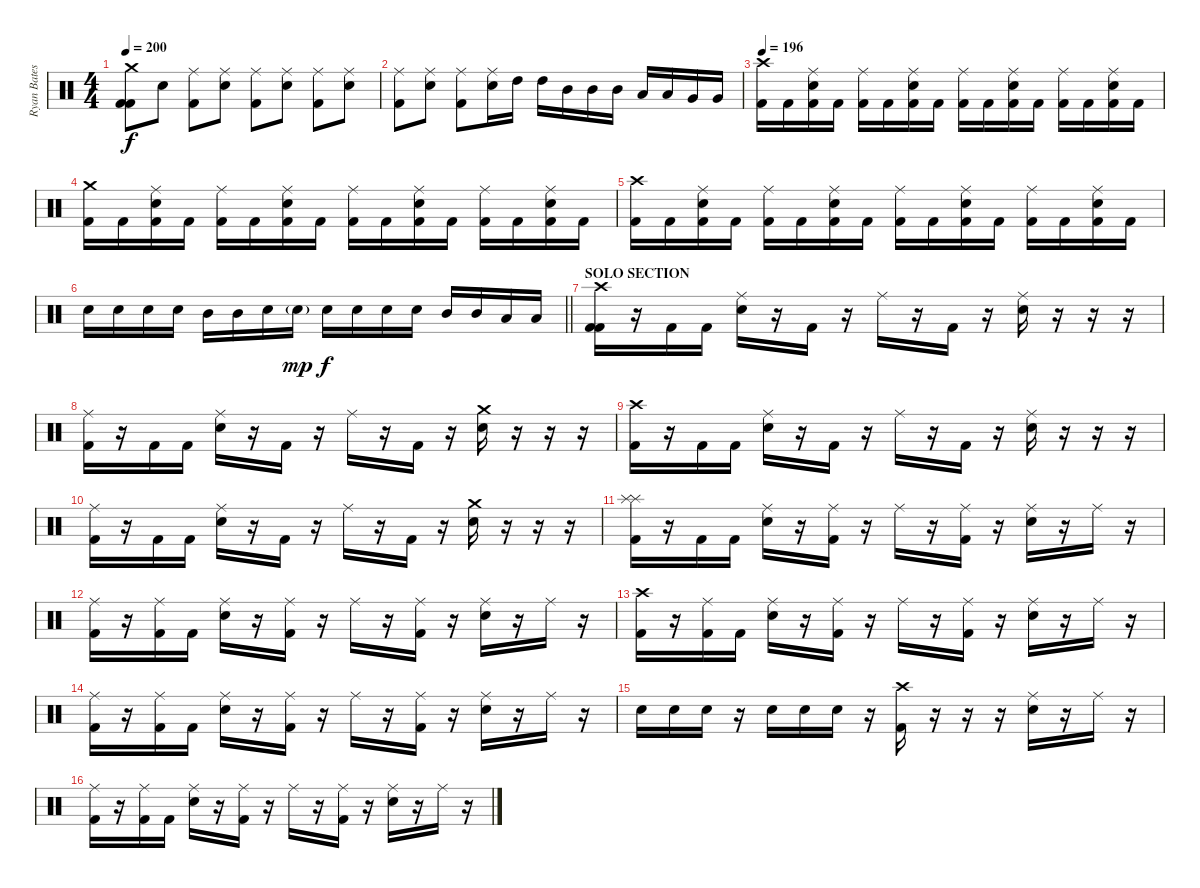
\track ("Ryan Bates" "Ryan Bates") {instrument percussion}
\staff {score}
\articulation defaults
\ts (4 4)
\tempo 200
\clef neutral
\ks c
("Crash medium (hit)" "Kick (hit) 2" "Kick (hit) 2").8{dy f} "Electric Snare (hit)".8 ("Ride (middle)" "Kick (hit) 2").8 ("Ride (middle)" "Electric Snare (hit)").8 ("Ride (middle)" "Kick (hit) 2").8 ("Ride (middle)" "Electric Snare (hit)").8 ("Ride (middle)" "Kick (hit) 2").8 ("Ride (middle)" "Electric Snare (hit)").8 |
("Ride (middle)" "Kick (hit) 2").8 ("Ride (middle)" "Electric Snare (hit)").8 ("Ride (middle)" "Kick (hit) 2").8 ("Ride (middle)" "Electric Snare (hit)").16 "High Tom (hit)".16 "High Tom (hit)".16 "Mid Tom (hit)".16 "Mid Tom (hit)".16 "Mid Tom (hit)".16 "Low Tom (hit)".16 "Low Tom (hit)".16 "Very Low Tom (hit)".16 "Very Low Tom (hit)".16 |
\tempo 196
("Crash high (hit)" "Kick (hit) 2").16 "Kick (hit) 2".16 ("Ride (middle)" "Electric Snare (hit)" "Kick (hit) 2").16 "Kick (hit) 2".16 ("Ride (middle)" "Kick (hit) 2").16 "Kick (hit) 2".16 ("Ride (middle)" "Electric Snare (hit)" "Kick (hit) 2").16 "Kick (hit) 2".16 ("Ride (middle)" "Kick (hit) 2").16 "Kick (hit) 2".16 ("Ride (middle)" "Electric Snare (hit)" "Kick (hit) 2").16 "Kick (hit) 2".16 ("Ride (middle)" "Kick (hit) 2").16 "Kick (hit) 2".16 ("Ride (middle)" "Electric Snare (hit)" "Kick (hit) 2").16 "Kick (hit) 2".16 |
("Crash medium (hit)" "Kick (hit) 2").16 "Kick (hit) 2".16 ("Ride (middle)" "Electric Snare (hit)" "Kick (hit) 2").16 "Kick (hit) 2".16 ("Ride (middle)" "Kick (hit) 2").16 "Kick (hit) 2".16 ("Ride (middle)" "Electric Snare (hit)" "Kick (hit) 2").16 "Kick (hit) 2".16 ("Ride (middle)" "Kick (hit) 2").16 "Kick (hit) 2".16 ("Ride (middle)" "Electric Snare (hit)" "Kick (hit) 2").16 "Kick (hit) 2".16 ("Ride (middle)" "Kick (hit) 2").16 "Kick (hit) 2".16 ("Ride (middle)" "Electric Snare (hit)" "Kick (hit) 2").16 "Kick (hit) 2".16 |
("Crash high (hit)" "Kick (hit) 2").16 "Kick (hit) 2".16 ("Ride (middle)" "Electric Snare (hit)" "Kick (hit) 2").16 "Kick (hit) 2".16 ("Ride (middle)" "Kick (hit) 2").16 "Kick (hit) 2".16 ("Ride (middle)" "Electric Snare (hit)" "Kick (hit) 2").16 "Kick (hit) 2".16 ("Ride (middle)" "Kick (hit) 2").16 "Kick (hit) 2".16 ("Ride (middle)" "Electric Snare (hit)" "Kick (hit) 2").16 "Kick (hit) 2".16 ("Ride (middle)" "Kick (hit) 2").16 "Kick (hit) 2".16 ("Ride (middle)" "Electric Snare (hit)" "Kick (hit) 2").16 "Kick (hit) 2".16 |
\barLineRight lightlight "Electric Snare (hit)".16 "Electric Snare (hit)".16 "Electric Snare (hit)".16 "Electric Snare (hit)".16 "Mid Tom (hit)".16 "Mid Tom (hit)".16 "Electric Snare (hit)".16 "Electric Snare (hit)"{g}.16{dy mp} "Electric Snare (hit)".16{dy f} "Electric Snare (hit)".16 "Electric Snare (hit)".16 "Electric Snare (hit)".16 "Mid Tom (hit)".16 "Mid Tom (hit)".16 "Low Tom (hit)".16 "Low Tom (hit)".16
|
\section ("" "SOLO SECTION")
("Crash high (hit)" "Kick (hit) 2" "Kick (hit) 2").16 r.16 "Kick (hit) 2".16 "Kick (hit) 2".16 ("Ride (middle)" "Electric Snare (hit)").16 r.16 "Kick (hit) 2".16 r.16 "Ride (middle)".16 r.16 "Kick (hit) 2".16 r.16 ("Ride (middle)" "Electric Snare (hit)").16 r.16 r.16 r.16 |
("Ride (middle)" "Kick (hit) 2").16 r.16 "Kick (hit) 2".16 "Kick (hit) 2".16 ("Ride (middle)" "Electric Snare (hit)").16 r.16 "Kick (hit) 2".16 r.16 "Ride (middle)".16 r.16 "Kick (hit) 2".16 r.16 ("Crash medium (hit)" "Electric Snare (hit)").16 r.16 r.16 r.16 |
("Crash high (hit)" "Kick (hit) 2").16 r.16 "Kick (hit) 2".16 "Kick (hit) 2".16 ("Ride (middle)" "Electric Snare (hit)").16 r.16 "Kick (hit) 2".16 r.16 "Ride (middle)".16 r.16 "Kick (hit) 2".16 r.16 ("Ride (middle)" "Electric Snare (hit)").16 r.16 r.16 r.16 |
("Ride (middle)" "Kick (hit) 2").16 r.16 "Kick (hit) 2".16 "Kick (hit) 2".16 ("Ride (middle)" "Electric Snare (hit)").16 r.16 "Kick (hit) 2".16 r.16 "Ride (middle)".16 r.16 "Kick (hit) 2".16 r.16 ("Crash medium (hit)" "Electric Snare (hit)").16 r.16 r.16 r.16 |
("Splash (hit)" "Splash (hit)" "Kick (hit) 2").16 r.16 "Kick (hit) 2".16 "Kick (hit) 2".16 ("Ride (middle)" "Electric Snare (hit)").16 r.16 ("Ride (middle)" "Kick (hit) 2").16 r.16 "Ride (middle)".16 r.16 ("Ride (middle)" "Kick (hit) 2").16 r.16 ("Ride (middle)" "Electric Snare (hit)").16 r.16 "Ride (middle)".16 r.16 |
("Ride (middle)" "Kick (hit) 2").16 r.16 ("Ride (middle)" "Kick (hit) 2").16 "Kick (hit) 2".16 ("Ride (middle)" "Electric Snare (hit)").16 r.16 ("Ride (middle)" "Kick (hit) 2").16 r.16 "Ride (middle)".16 r.16 ("Ride (middle)" "Kick (hit) 2").16 r.16 ("Ride (middle)" "Electric Snare (hit)").16 r.16 "Ride (middle)".16 r.16 |
("Crash high (hit)" "Kick (hit) 2").16 r.16 ("Ride (middle)" "Kick (hit) 2").16 "Kick (hit) 2".16 ("Ride (middle)" "Electric Snare (hit)").16 r.16 ("Ride (middle)" "Kick (hit) 2").16 r.16 "Ride (middle)".16 r.16 ("Ride (middle)" "Kick (hit) 2").16 r.16 ("Ride (middle)" "Electric Snare (hit)").16 r.16 "Ride (middle)".16 r.16 |
("Ride (middle)" "Kick (hit) 2").16 r.16 ("Ride (middle)" "Kick (hit) 2").16 "Kick (hit) 2".16 ("Ride (middle)" "Electric Snare (hit)").16 r.16 ("Ride (middle)" "Kick (hit) 2").16 r.16 "Ride (middle)".16 r.16 ("Ride (middle)" "Kick (hit) 2").16 r.16 ("Ride (middle)" "Electric Snare (hit)").16 r.16 "Ride (middle)".16 r.16 |
"Electric Snare (hit)".16 "Electric Snare (hit)".16 "Electric Snare (hit)".16 r.16 "Electric Snare (hit)".16 "Electric Snare (hit)".16 "Electric Snare (hit)".16 r.16 ("Crash high (hit)" "Kick (hit) 2").16 r.16 r.16 r.16 ("Ride (middle)" "Electric Snare (hit)").16 r.16 "Ride (middle)".16 r.16 |
("Ride (middle)" "Kick (hit) 2").16 r.16 ("Ride (middle)" "Kick (hit) 2").16 "Kick (hit) 2".16 ("Ride (middle)" "Electric Snare (hit)").16 r.16 ("Ride (middle)" "Kick (hit) 2").16 r.16 "Ride (middle)".16 r.16 ("Ride (middle)" "Kick (hit) 2").16 r.16 ("Ride (middle)" "Electric Snare (hit)").16 r.16 "Ride (middle)".16 r.16
